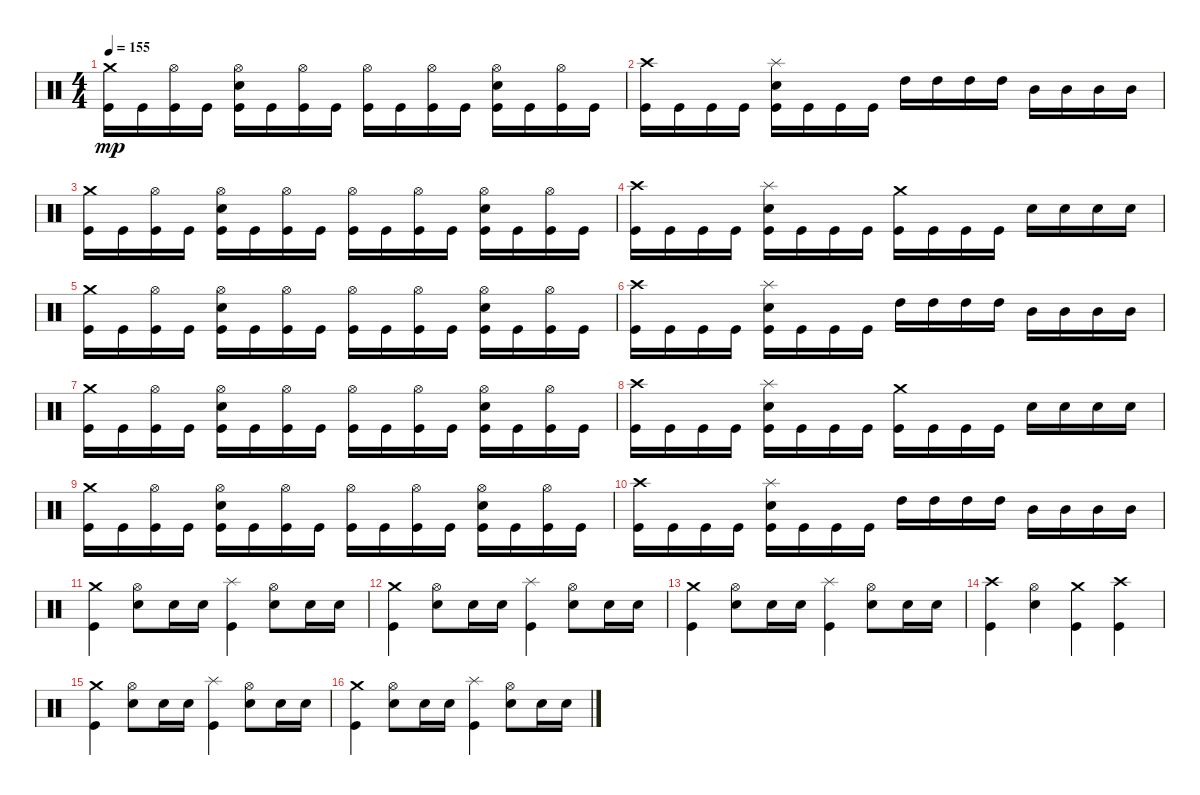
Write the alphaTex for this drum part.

\track "" {instrument percussion}
\staff {score}
\articulation defaults
\ts (4 4)
\tempo 155
\clef neutral
\ks c
("Crash medium (hit)" "Kick (hit)").16{dy mp} "Kick (hit)".16 ("Kick (hit)" "Hi-Hat (open)").16 "Kick (hit)".16 ("Kick (hit)" "Snare (hit) 2" "Hi-Hat (open)").16 "Kick (hit)".16 ("Kick (hit)" "Hi-Hat (open)").16 "Kick (hit)".16 ("Kick (hit)" "Hi-Hat (open)").16 "Kick (hit)".16 ("Kick (hit)" "Hi-Hat (open)").16 "Kick (hit)".16 ("Kick (hit)" "Snare (hit) 2" "Hi-Hat (open)").16 "Kick (hit)".16 ("Kick (hit)" "Hi-Hat (open)").16 "Kick (hit)".16 |
("Kick (hit)" "Crash high (hit)").16 "Kick (hit)".16 "Kick (hit)".16 "Kick (hit)".16 ("Kick (hit)" "Snare (hit) 2" "Splash (hit)").16 "Kick (hit)".16 "Kick (hit)".16 "Kick (hit)".16 "High Tom (hit)".16 "High Tom (hit)".16 "High Tom (hit)".16 "High Tom (hit)".16 "Mid Tom (hit)".16 "Mid Tom (hit)".16 "Mid Tom (hit)".16 "Mid Tom (hit)".16 |
("Crash medium (hit)" "Kick (hit)").16 "Kick (hit)".16 ("Kick (hit)" "Hi-Hat (open)").16 "Kick (hit)".16 ("Kick (hit)" "Snare (hit) 2" "Hi-Hat (open)").16 "Kick (hit)".16 ("Kick (hit)" "Hi-Hat (open)").16 "Kick (hit)".16 ("Kick (hit)" "Hi-Hat (open)").16 "Kick (hit)".16 ("Kick (hit)" "Hi-Hat (open)").16 "Kick (hit)".16 ("Kick (hit)" "Snare (hit) 2" "Hi-Hat (open)").16 "Kick (hit)".16 ("Kick (hit)" "Hi-Hat (open)").16 "Kick (hit)".16 |
("Kick (hit)" "Crash high (hit)").16 "Kick (hit)".16 "Kick (hit)".16 "Kick (hit)".16 ("Kick (hit)" "Snare (hit) 2" "Splash (hit)").16 "Kick (hit)".16 "Kick (hit)".16 "Kick (hit)".16 ("Kick (hit)" "Crash medium (hit)").16 "Kick (hit)".16 "Kick (hit)".16 "Kick (hit)".16 "Snare (hit) 2".16 "Snare (hit) 2".16 "Snare (hit) 2".16 "Snare (hit) 2".16 |
("Crash medium (hit)" "Kick (hit)").16 "Kick (hit)".16 ("Kick (hit)" "Hi-Hat (open)").16 "Kick (hit)".16 ("Kick (hit)" "Snare (hit) 2" "Hi-Hat (open)").16 "Kick (hit)".16 ("Kick (hit)" "Hi-Hat (open)").16 "Kick (hit)".16 ("Kick (hit)" "Hi-Hat (open)").16 "Kick (hit)".16 ("Kick (hit)" "Hi-Hat (open)").16 "Kick (hit)".16 ("Kick (hit)" "Snare (hit) 2" "Hi-Hat (open)").16 "Kick (hit)".16 ("Kick (hit)" "Hi-Hat (open)").16 "Kick (hit)".16 |
("Kick (hit)" "Crash high (hit)").16 "Kick (hit)".16 "Kick (hit)".16 "Kick (hit)".16 ("Kick (hit)" "Snare (hit) 2" "Splash (hit)").16 "Kick (hit)".16 "Kick (hit)".16 "Kick (hit)".16 "High Tom (hit)".16 "High Tom (hit)".16 "High Tom (hit)".16 "High Tom (hit)".16 "Mid Tom (hit)".16 "Mid Tom (hit)".16 "Mid Tom (hit)".16 "Mid Tom (hit)".16 |
("Crash medium (hit)" "Kick (hit)").16 "Kick (hit)".16 ("Kick (hit)" "Hi-Hat (open)").16 "Kick (hit)".16 ("Kick (hit)" "Snare (hit) 2" "Hi-Hat (open)").16 "Kick (hit)".16 ("Kick (hit)" "Hi-Hat (open)").16 "Kick (hit)".16 ("Kick (hit)" "Hi-Hat (open)").16 "Kick (hit)".16 ("Kick (hit)" "Hi-Hat (open)").16 "Kick (hit)".16 ("Kick (hit)" "Snare (hit) 2" "Hi-Hat (open)").16 "Kick (hit)".16 ("Kick (hit)" "Hi-Hat (open)").16 "Kick (hit)".16 |
("Kick (hit)" "Crash high (hit)").16 "Kick (hit)".16 "Kick (hit)".16 "Kick (hit)".16 ("Kick (hit)" "Snare (hit) 2" "Splash (hit)").16 "Kick (hit)".16 "Kick (hit)".16 "Kick (hit)".16 ("Kick (hit)" "Crash medium (hit)").16 "Kick (hit)".16 "Kick (hit)".16 "Kick (hit)".16 "Snare (hit) 2".16 "Snare (hit) 2".16 "Snare (hit) 2".16 "Snare (hit) 2".16 |
("Crash medium (hit)" "Kick (hit)").16 "Kick (hit)".16 ("Kick (hit)" "Hi-Hat (open)").16 "Kick (hit)".16 ("Kick (hit)" "Snare (hit) 2" "Hi-Hat (open)").16 "Kick (hit)".16 ("Kick (hit)" "Hi-Hat (open)").16 "Kick (hit)".16 ("Kick (hit)" "Hi-Hat (open)").16 "Kick (hit)".16 ("Kick (hit)" "Hi-Hat (open)").16 "Kick (hit)".16 ("Kick (hit)" "Snare (hit) 2" "Hi-Hat (open)").16 "Kick (hit)".16 ("Kick (hit)" "Hi-Hat (open)").16 "Kick (hit)".16 |
("Kick (hit)" "Crash high (hit)").16 "Kick (hit)".16 "Kick (hit)".16 "Kick (hit)".16 ("Kick (hit)" "Snare (hit) 2" "Splash (hit)").16 "Kick (hit)".16 "Kick (hit)".16 "Kick (hit)".16 "High Tom (hit)".16 "High Tom (hit)".16 "High Tom (hit)".16 "High Tom (hit)".16 "Mid Tom (hit)".16 "Mid Tom (hit)".16 "Mid Tom (hit)".16 "Mid Tom (hit)".16 |
("Crash medium (hit)" "Kick (hit)").4 ("Snare (hit) 2" "Hi-Hat (open)").8 "Snare (hit) 2".16 "Snare (hit) 2".16 ("Splash (hit)" "Kick (hit)").4 ("Snare (hit) 2" "Hi-Hat (open)").8 "Snare (hit) 2".16 "Snare (hit) 2".16 |
("Crash medium (hit)" "Kick (hit)").4 ("Snare (hit) 2" "Hi-Hat (open)").8 "Snare (hit) 2".16 "Snare (hit) 2".16 ("Splash (hit)" "Kick (hit)").4 ("Snare (hit) 2" "Hi-Hat (open)").8 "Snare (hit) 2".16 "Snare (hit) 2".16 |
("Crash medium (hit)" "Kick (hit)").4 ("Snare (hit) 2" "Hi-Hat (open)").8 "Snare (hit) 2".16 "Snare (hit) 2".16 ("Splash (hit)" "Kick (hit)").4 ("Snare (hit) 2" "Hi-Hat (open)").8 "Snare (hit) 2".16 "Snare (hit) 2".16 |
("Crash high (hit)" "Kick (hit)").4 ("Snare (hit) 2" "Hi-Hat (open)").4 ("Kick (hit)" "Crash medium (hit)").4 ("Kick (hit)" "Crash high (hit)").4 |
("Crash medium (hit)" "Kick (hit)").4 ("Snare (hit) 2" "Hi-Hat (open)").8 "Snare (hit) 2".16 "Snare (hit) 2".16 ("Splash (hit)" "Kick (hit)").4 ("Snare (hit) 2" "Hi-Hat (open)").8 "Snare (hit) 2".16 "Snare (hit) 2".16 |
("Crash medium (hit)" "Kick (hit)").4 ("Snare (hit) 2" "Hi-Hat (open)").8 "Snare (hit) 2".16 "Snare (hit) 2".16 ("Splash (hit)" "Kick (hit)").4 ("Snare (hit) 2" "Hi-Hat (open)").8 "Snare (hit) 2".16 "Snare (hit) 2".16
